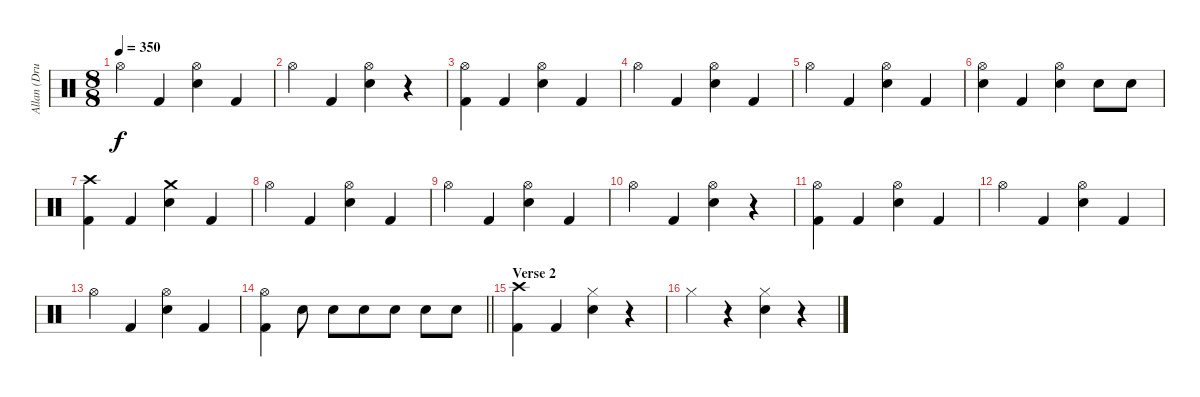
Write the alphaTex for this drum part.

\track ("Allan (Drums)" "Allan (Dru") {solo instrument percussion}
\staff {score}
\articulation defaults
\ts (8 8)
\tempo 350
\clef neutral
\ks c "Hi-Hat (open)".4{dy f} "Kick (hit) 2".4
("Hi-Hat (open)" "Snare (hit) 2").4 "Kick (hit) 2".4 |
"Hi-Hat (open)".4 "Kick (hit) 2".4 ("Hi-Hat (open)" "Snare (hit) 2").4 r.4 |
("Hi-Hat (open)" "Kick (hit) 2").4 "Kick (hit) 2".4 ("Hi-Hat (open)" "Snare (hit) 2").4 "Kick (hit) 2".4 |
"Hi-Hat (open)".4 "Kick (hit) 2".4 ("Hi-Hat (open)" "Snare (hit) 2").4 "Kick (hit) 2".4 |
"Hi-Hat (open)".4 "Kick (hit) 2".4 ("Hi-Hat (open)" "Snare (hit) 2").4 "Kick (hit) 2".4 |
("Hi-Hat (open)" "Snare (hit) 2").4 "Kick (hit) 2".4 ("Hi-Hat (open)" "Snare (hit) 2").4 "Snare (hit) 2".8 "Snare (hit) 2".8 |
("Crash high (hit)" "Kick (hit) 2").4 "Kick (hit) 2".4 ("Crash medium (hit)" "Snare (hit) 2").4 "Kick (hit) 2".4 |
"Hi-Hat (open)".4 "Kick (hit) 2".4 ("Hi-Hat (open)" "Snare (hit) 2").4 "Kick (hit) 2".4 |
"Hi-Hat (open)".4 "Kick (hit) 2".4 ("Hi-Hat (open)" "Snare (hit) 2").4 "Kick (hit) 2".4 |
"Hi-Hat (open)".4 "Kick (hit) 2".4 ("Hi-Hat (open)" "Snare (hit) 2").4 r.4 |
("Hi-Hat (open)" "Kick (hit) 2").4 "Kick (hit) 2".4 ("Hi-Hat (open)" "Snare (hit) 2").4 "Kick (hit) 2".4 |
"Hi-Hat (open)".4 "Kick (hit) 2".4 ("Hi-Hat (open)" "Snare (hit) 2").4 "Kick (hit) 2".4 |
"Hi-Hat (open)".4 "Kick (hit) 2".4 ("Hi-Hat (open)" "Snare (hit) 2").4 "Kick (hit) 2".4 |
\barLineRight lightlight
("Hi-Hat (open)" "Kick (hit) 2").4 "Snare (hit) 2".8 "Snare (hit) 2".8 "Snare (hit) 2".8 "Snare (hit) 2".8 "Snare (hit) 2".8 "Snare (hit) 2".8 |
\section ("" "Verse 2")
("Crash high (hit)" "Kick (hit) 2").4 "Kick (hit) 2".4 ("Hi-Hat (closed)" "Snare (hit) 2").4 r.4 |
"Hi-Hat (closed)".4 r.4 ("Hi-Hat (closed)" "Snare (hit) 2").4 r.4
